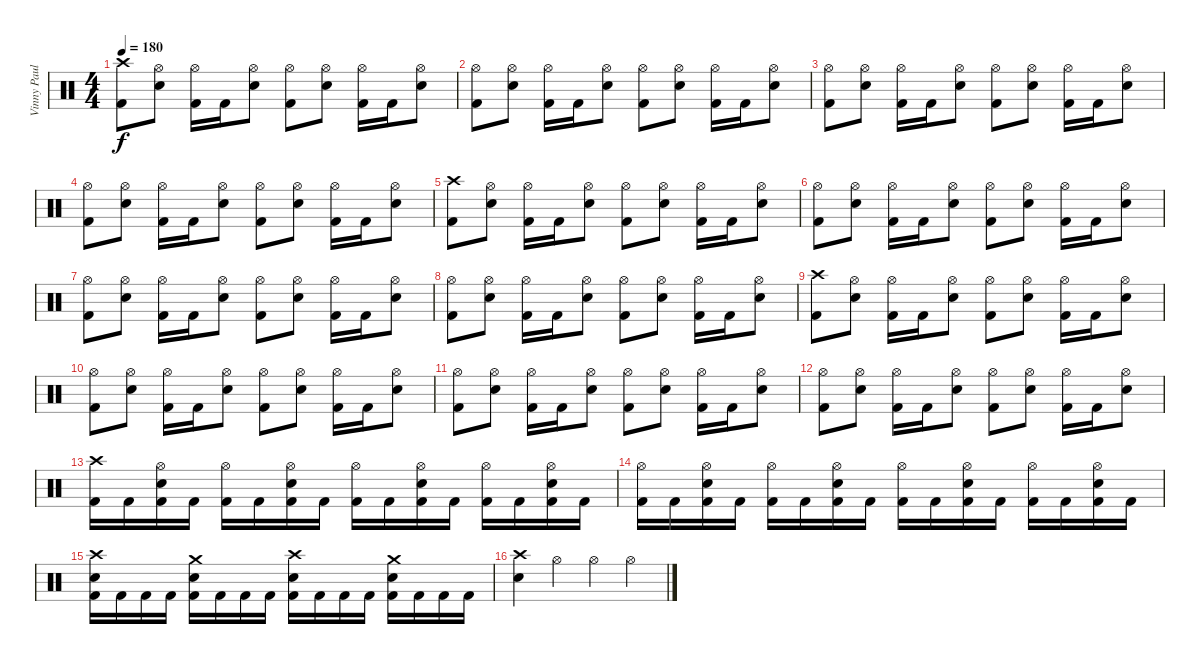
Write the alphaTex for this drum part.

\track ("Vinny Paul" "Vinny Paul") {instrument percussion}
\staff {score}
\articulation defaults
\ts (4 4)
\tempo 180
\clef neutral
\ks c
("Crash high (hit)" "Kick (hit) 2").8{dy f} ("Hi-Hat (open)" "Electric Snare (hit)").8 ("Hi-Hat (open)" "Kick (hit) 2").16 "Kick (hit) 2".16 ("Hi-Hat (open)" "Electric Snare (hit)").8 ("Hi-Hat (open)" "Kick (hit) 2").8 ("Hi-Hat (open)" "Electric Snare (hit)").8 ("Hi-Hat (open)" "Kick (hit) 2").16 "Kick (hit) 2".16 ("Hi-Hat (open)" "Electric Snare (hit)").8 |
("Hi-Hat (open)" "Kick (hit) 2").8 ("Hi-Hat (open)" "Electric Snare (hit)").8 ("Hi-Hat (open)" "Kick (hit) 2").16 "Kick (hit) 2".16 ("Hi-Hat (open)" "Electric Snare (hit)").8 ("Hi-Hat (open)" "Kick (hit) 2").8 ("Hi-Hat (open)" "Electric Snare (hit)").8 ("Hi-Hat (open)" "Kick (hit) 2").16 "Kick (hit) 2".16 ("Hi-Hat (open)" "Electric Snare (hit)").8 |
("Hi-Hat (open)" "Kick (hit) 2").8 ("Hi-Hat (open)" "Electric Snare (hit)").8 ("Hi-Hat (open)" "Kick (hit) 2").16 "Kick (hit) 2".16 ("Hi-Hat (open)" "Electric Snare (hit)").8 ("Hi-Hat (open)" "Kick (hit) 2").8 ("Hi-Hat (open)" "Electric Snare (hit)").8 ("Hi-Hat (open)" "Kick (hit) 2").16 "Kick (hit) 2".16 ("Hi-Hat (open)" "Electric Snare (hit)").8 |
("Hi-Hat (open)" "Kick (hit) 2").8 ("Hi-Hat (open)" "Electric Snare (hit)").8 ("Hi-Hat (open)" "Kick (hit) 2").16 "Kick (hit) 2".16 ("Hi-Hat (open)" "Electric Snare (hit)").8 ("Hi-Hat (open)" "Kick (hit) 2").8 ("Hi-Hat (open)" "Electric Snare (hit)").8 ("Hi-Hat (open)" "Kick (hit) 2").16 "Kick (hit) 2".16 ("Hi-Hat (open)" "Electric Snare (hit)").8 |
("Crash high (hit)" "Kick (hit) 2").8 ("Hi-Hat (open)" "Electric Snare (hit)").8 ("Hi-Hat (open)" "Kick (hit) 2").16 "Kick (hit) 2".16 ("Hi-Hat (open)" "Electric Snare (hit)").8 ("Hi-Hat (open)" "Kick (hit) 2").8 ("Hi-Hat (open)" "Electric Snare (hit)").8 ("Hi-Hat (open)" "Kick (hit) 2").16 "Kick (hit) 2".16 ("Hi-Hat (open)" "Electric Snare (hit)").8 |
("Hi-Hat (open)" "Kick (hit) 2").8 ("Hi-Hat (open)" "Electric Snare (hit)").8 ("Hi-Hat (open)" "Kick (hit) 2").16 "Kick (hit) 2".16 ("Hi-Hat (open)" "Electric Snare (hit)").8 ("Hi-Hat (open)" "Kick (hit) 2").8 ("Hi-Hat (open)" "Electric Snare (hit)").8 ("Hi-Hat (open)" "Kick (hit) 2").16 "Kick (hit) 2".16 ("Hi-Hat (open)" "Electric Snare (hit)").8 |
("Hi-Hat (open)" "Kick (hit) 2").8 ("Hi-Hat (open)" "Electric Snare (hit)").8 ("Hi-Hat (open)" "Kick (hit) 2").16 "Kick (hit) 2".16 ("Hi-Hat (open)" "Electric Snare (hit)").8 ("Hi-Hat (open)" "Kick (hit) 2").8 ("Hi-Hat (open)" "Electric Snare (hit)").8 ("Hi-Hat (open)" "Kick (hit) 2").16 "Kick (hit) 2".16 ("Hi-Hat (open)" "Electric Snare (hit)").8 |
("Hi-Hat (open)" "Kick (hit) 2").8 ("Hi-Hat (open)" "Electric Snare (hit)").8 ("Hi-Hat (open)" "Kick (hit) 2").16 "Kick (hit) 2".16 ("Hi-Hat (open)" "Electric Snare (hit)").8 ("Hi-Hat (open)" "Kick (hit) 2").8 ("Hi-Hat (open)" "Electric Snare (hit)").8 ("Hi-Hat (open)" "Kick (hit) 2").16 "Kick (hit) 2".16 ("Hi-Hat (open)" "Electric Snare (hit)").8 |
("Crash high (hit)" "Kick (hit) 2").8 ("Hi-Hat (open)" "Electric Snare (hit)").8 ("Hi-Hat (open)" "Kick (hit) 2").16 "Kick (hit) 2".16 ("Hi-Hat (open)" "Electric Snare (hit)").8 ("Hi-Hat (open)" "Kick (hit) 2").8 ("Hi-Hat (open)" "Electric Snare (hit)").8 ("Hi-Hat (open)" "Kick (hit) 2").16 "Kick (hit) 2".16 ("Hi-Hat (open)" "Electric Snare (hit)").8 |
("Hi-Hat (open)" "Kick (hit) 2").8 ("Hi-Hat (open)" "Electric Snare (hit)").8 ("Hi-Hat (open)" "Kick (hit) 2").16 "Kick (hit) 2".16 ("Hi-Hat (open)" "Electric Snare (hit)").8 ("Hi-Hat (open)" "Kick (hit) 2").8 ("Hi-Hat (open)" "Electric Snare (hit)").8 ("Hi-Hat (open)" "Kick (hit) 2").16 "Kick (hit) 2".16 ("Hi-Hat (open)" "Electric Snare (hit)").8 |
("Hi-Hat (open)" "Kick (hit) 2").8 ("Hi-Hat (open)" "Electric Snare (hit)").8 ("Hi-Hat (open)" "Kick (hit) 2").16 "Kick (hit) 2".16 ("Hi-Hat (open)" "Electric Snare (hit)").8 ("Hi-Hat (open)" "Kick (hit) 2").8 ("Hi-Hat (open)" "Electric Snare (hit)").8 ("Hi-Hat (open)" "Kick (hit) 2").16 "Kick (hit) 2".16 ("Hi-Hat (open)" "Electric Snare (hit)").8 |
("Hi-Hat (open)" "Kick (hit) 2").8 ("Hi-Hat (open)" "Electric Snare (hit)").8 ("Hi-Hat (open)" "Kick (hit) 2").16 "Kick (hit) 2".16 ("Hi-Hat (open)" "Electric Snare (hit)").8 ("Hi-Hat (open)" "Kick (hit) 2").8 ("Hi-Hat (open)" "Electric Snare (hit)").8 ("Hi-Hat (open)" "Kick (hit) 2").16 "Kick (hit) 2".16 ("Hi-Hat (open)" "Electric Snare (hit)").8 |
("Crash high (hit)" "Kick (hit) 2").16 "Kick (hit) 2".16 ("Hi-Hat (open)" "Electric Snare (hit)" "Kick (hit) 2").16 "Kick (hit) 2".16 ("Hi-Hat (open)" "Kick (hit) 2").16 "Kick (hit) 2".16 ("Hi-Hat (open)" "Electric Snare (hit)" "Kick (hit) 2").16 "Kick (hit) 2".16 ("Hi-Hat (open)" "Kick (hit) 2").16 "Kick (hit) 2".16 ("Hi-Hat (open)" "Electric Snare (hit)" "Kick (hit) 2").16 "Kick (hit) 2".16 ("Hi-Hat (open)" "Kick (hit) 2").16 "Kick (hit) 2".16 ("Hi-Hat (open)" "Electric Snare (hit)" "Kick (hit) 2").16 "Kick (hit) 2".16 |
("Hi-Hat (open)" "Kick (hit) 2").16 "Kick (hit) 2".16 ("Hi-Hat (open)" "Electric Snare (hit)" "Kick (hit) 2").16 "Kick (hit) 2".16 ("Hi-Hat (open)" "Kick (hit) 2").16 "Kick (hit) 2".16 ("Hi-Hat (open)" "Electric Snare (hit)" "Kick (hit) 2").16 "Kick (hit) 2".16 ("Hi-Hat (open)" "Kick (hit) 2").16 "Kick (hit) 2".16 ("Hi-Hat (open)" "Electric Snare (hit)" "Kick (hit) 2").16 "Kick (hit) 2".16 ("Hi-Hat (open)" "Kick (hit) 2").16 "Kick (hit) 2".16 ("Hi-Hat (open)" "Electric Snare (hit)" "Kick (hit) 2").16 "Kick (hit) 2".16 |
("Crash high (hit)" "Electric Snare (hit)" "Kick (hit) 2").16 "Kick (hit) 2".16 "Kick (hit) 2".16 "Kick (hit) 2".16 ("Crash medium (hit)" "Electric Snare (hit)" "Kick (hit) 2").16 "Kick (hit) 2".16 "Kick (hit) 2".16 "Kick (hit) 2".16 ("Crash high (hit)" "Electric Snare (hit)" "Kick (hit) 2").16 "Kick (hit) 2".16 "Kick (hit) 2".16 "Kick (hit) 2".16 ("Crash medium (hit)" "Electric Snare (hit)" "Kick (hit) 2").16 "Kick (hit) 2".16 "Kick (hit) 2".16 "Kick (hit) 2".16 |
("Crash high (hit)" "Electric Snare (hit)").4 "Hi-Hat (open)".4 "Hi-Hat (open)".4 "Hi-Hat (open)".4
